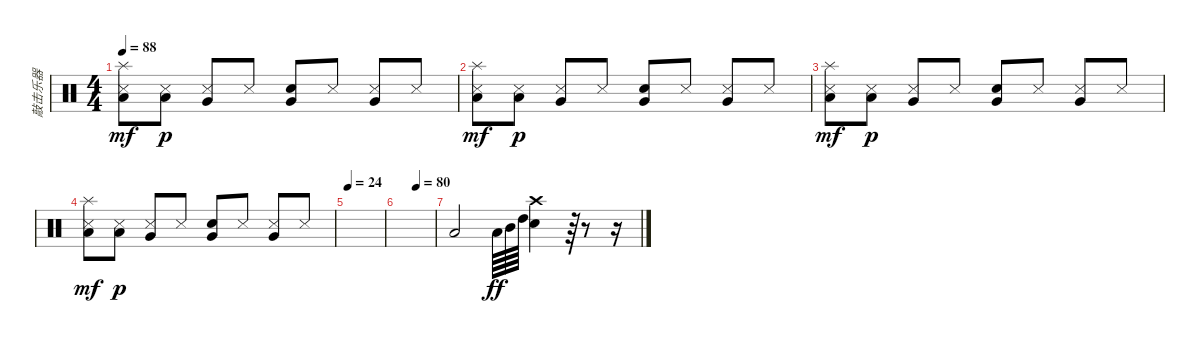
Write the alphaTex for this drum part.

\track ("敲击乐器" "敲击乐器") {instrument percussion}
\staff {score}
\articulation defaults
\ts (4 4)
\tempo 88
\clef neutral
\ks c
("Low Floor Tom (hit)" "Splash (hit)" "Snare (side stick) 3").8{dy mf} ("Low Floor Tom (hit)" "Snare (side stick) 3").8{dy p} ("Very Low Tom (hit)" "Snare (side stick) 3").8 "Snare (side stick) 3".8 ("Very Low Tom (hit)" "Snare (hit) 2").8 "Snare (side stick) 3".8 ("Very Low Tom (hit)" "Snare (side stick) 3").8 "Snare (side stick) 3".8 |
("Low Floor Tom (hit)" "Splash (hit)" "Snare (side stick) 3").8{dy mf} ("Low Floor Tom (hit)" "Snare (side stick) 3").8{dy p} ("Very Low Tom (hit)" "Snare (side stick) 3").8 "Snare (side stick) 3".8 ("Very Low Tom (hit)" "Snare (hit) 2").8 "Snare (side stick) 3".8 ("Very Low Tom (hit)" "Snare (side stick) 3").8 "Snare (side stick) 3".8 |
("Low Floor Tom (hit)" "Splash (hit)" "Snare (side stick) 3").8{dy mf} ("Low Floor Tom (hit)" "Snare (side stick) 3").8{dy p} ("Very Low Tom (hit)" "Snare (side stick) 3").8 "Snare (side stick) 3".8 ("Very Low Tom (hit)" "Snare (hit) 2").8 "Snare (side stick) 3".8 ("Very Low Tom (hit)" "Snare (side stick) 3").8 "Snare (side stick) 3".8 |
("Low Floor Tom (hit)" "Splash (hit)" "Snare (side stick) 3").8{dy mf} ("Low Floor Tom (hit)" "Snare (side stick) 3").8{dy p} ("Very Low Tom (hit)" "Snare (side stick) 3").8 "Snare (side stick) 3".8 ("Very Low Tom (hit)" "Snare (hit) 2").8 "Snare (side stick) 3".8 ("Very Low Tom (hit)" "Snare (side stick) 3").8 "Snare (side stick) 3".8 |
\tempo 24
|
\tempo (80 0.5)
|
"Low Floor Tom (hit)".2 "Low Tom (hit)".64{dy ff} "Mid Tom (hit)".64 "High Tom (hit)".64 ("Crash high (hit)" "Snare (hit) 2").4 r.64 r.8 r.16
